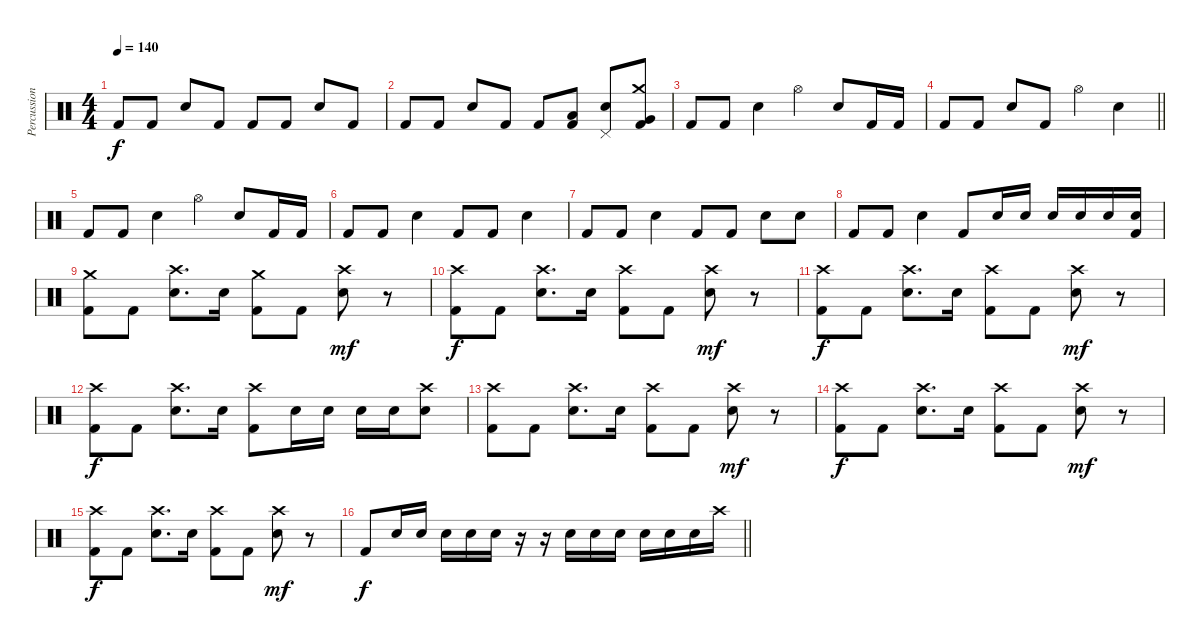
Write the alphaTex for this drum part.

\track ("Percussion" "Percussion") {instrument percussion}
\staff {score}
\articulation defaults
\ts (4 4)
\tempo 140
\clef neutral
\ks c "Kick (hit) 2".8{dy f} "Kick (hit) 2".8 "Electric Snare (hit)".8 "Kick (hit) 2".8 "Kick (hit) 2".8 "Kick (hit) 2".8 "Electric Snare (hit)".8 "Kick (hit) 2".8
|
"Kick (hit) 2".8 "Kick (hit) 2".8 "Electric Snare (hit)".8 "Kick (hit) 2".8 "Kick (hit) 2".8 ("Kick (hit) 2" "Low Tom (hit)").8 ("Electric Snare (hit)" "Pedal Hi-Hat (hit)").8 ("Kick (hit) 2" "Crash medium (hit)" "Very Low Tom (hit)").8 |
"Kick (hit) 2".8 "Kick (hit) 2".8 "Electric Snare (hit)".4 "Hi-Hat (open)".4 "Electric Snare (hit)".8 "Kick (hit) 2".16 "Kick (hit) 2".16 |
\barLineRight lightlight "Kick (hit) 2".8 "Kick (hit) 2".8 "Electric Snare (hit)".8 "Kick (hit) 2".8 "Hi-Hat (open)".4 "Electric Snare (hit)".4
|
"Kick (hit) 2".8 "Kick (hit) 2".8 "Electric Snare (hit)".4 "Hi-Hat (open)".4 "Electric Snare (hit)".8 "Kick (hit) 2".16 "Kick (hit) 2".16 |
"Kick (hit) 2".8 "Kick (hit) 2".8 "Electric Snare (hit)".4 "Kick (hit) 2".8 "Kick (hit) 2".8 "Electric Snare (hit)".4 |
"Kick (hit) 2".8 "Kick (hit) 2".8 "Electric Snare (hit)".4 "Kick (hit) 2".8 "Kick (hit) 2".8 "Electric Snare (hit)".8 "Electric Snare (hit)".8 |
"Kick (hit) 2".8 "Kick (hit) 2".8 "Electric Snare (hit)".4 "Kick (hit) 2".8 "Electric Snare (hit)".16 "Electric Snare (hit)".16 "Electric Snare (hit)".16 "Electric Snare (hit)".16 "Electric Snare (hit)".16 ("Kick (hit) 2" "Electric Snare (hit)").16 |
("Kick (hit) 2" "Crash medium (hit)").8 "Kick (hit) 2".8 ("Electric Snare (hit)" "Crash high (hit)").8{d} "Electric Snare (hit)".16 ("Kick (hit) 2" "Crash medium (hit)").8 "Kick (hit) 2".8 ("Electric Snare (hit)" "Crash high (hit)").8{dy mf} r.8 |
("Kick (hit) 2" "Crash high (hit)").8{dy f} "Kick (hit) 2".8 ("Electric Snare (hit)" "Crash high (hit)").8{d} "Electric Snare (hit)".16 ("Kick (hit) 2" "Crash high (hit)").8 "Kick (hit) 2".8 ("Electric Snare (hit)" "Crash high (hit)").8{dy mf} r.8 |
("Kick (hit) 2" "Crash high (hit)").8{dy f} "Kick (hit) 2".8 ("Electric Snare (hit)" "Crash high (hit)").8{d} "Electric Snare (hit)".16 ("Kick (hit) 2" "Crash high (hit)").8 "Kick (hit) 2".8 ("Electric Snare (hit)" "Crash high (hit)").8{dy mf} r.8 |
("Kick (hit) 2" "Crash high (hit)").8{dy f} "Kick (hit) 2".8 ("Electric Snare (hit)" "Crash high (hit)").8{d} "Electric Snare (hit)".16 ("Kick (hit) 2" "Crash high (hit)").8 "Electric Snare (hit)".16 "Electric Snare (hit)".16 "Electric Snare (hit)".16 "Electric Snare (hit)".16 ("Electric Snare (hit)" "Crash high (hit)").8 |
("Kick (hit) 2" "Crash high (hit)").8 "Kick (hit) 2".8 ("Electric Snare (hit)" "Crash high (hit)").8{d} "Electric Snare (hit)".16 ("Kick (hit) 2" "Crash high (hit)").8 "Kick (hit) 2".8 ("Electric Snare (hit)" "Crash high (hit)").8{dy mf} r.8 |
("Kick (hit) 2" "Crash high (hit)").8{dy f} "Kick (hit) 2".8 ("Electric Snare (hit)" "Crash high (hit)").8{d} "Electric Snare (hit)".16 ("Kick (hit) 2" "Crash high (hit)").8 "Kick (hit) 2".8 ("Electric Snare (hit)" "Crash high (hit)").8{dy mf} r.8 |
("Kick (hit) 2" "Crash high (hit)").8{dy f} "Kick (hit) 2".8 ("Electric Snare (hit)" "Crash high (hit)").8{d} "Electric Snare (hit)".16 ("Kick (hit) 2" "Crash high (hit)").8 "Kick (hit) 2".8 ("Electric Snare (hit)" "Crash high (hit)").8{dy mf} r.8 |
\barLineRight lightlight "Kick (hit) 2".8{dy f} "Electric Snare (hit)".16 "Electric Snare (hit)".16 "Electric Snare (hit)".16 "Electric Snare (hit)".16 "Electric Snare (hit)".16
r.16 r.16 "Electric Snare (hit)".16 "Electric Snare (hit)".16 "Electric Snare (hit)".16 "Electric Snare (hit)".16 "Electric Snare (hit)".16 "Electric Snare (hit)".16 "Crash high (hit)".16
